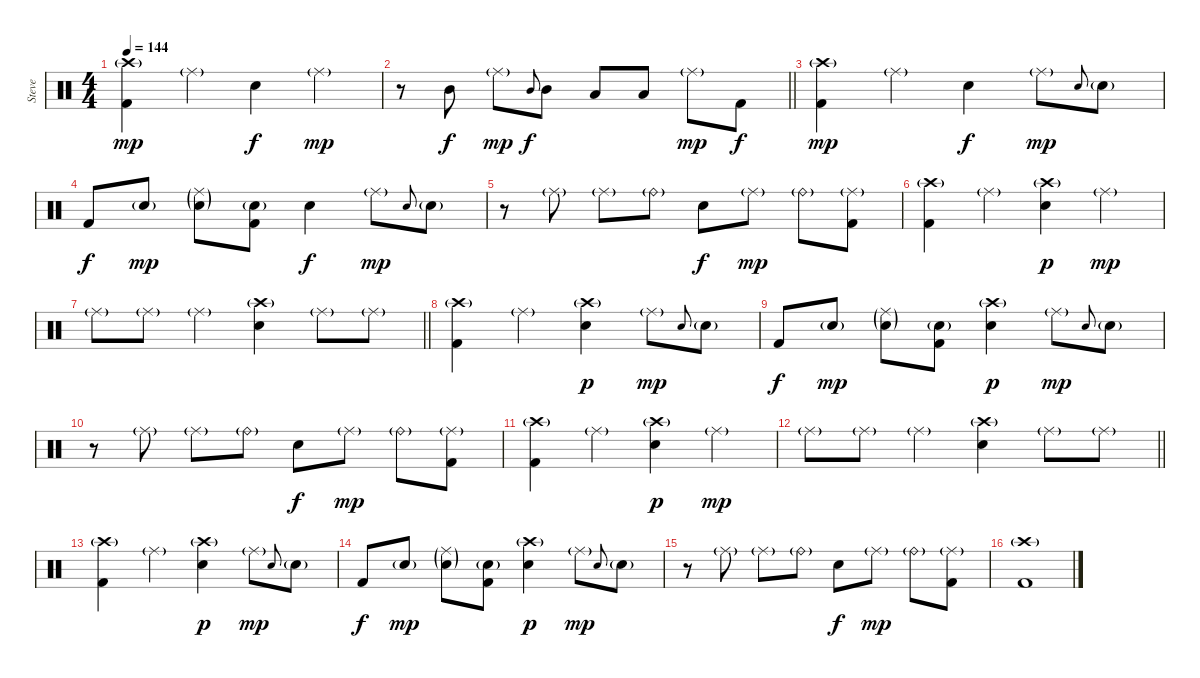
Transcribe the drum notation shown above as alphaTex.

\track ("Steve" "Steve") {instrument percussion}
\staff {score}
\articulation defaults
\ts (4 4)
\tempo 144
\clef neutral
\ks c
("Crash high (hit)"{g} "Kick (hit) 2").4{dy mp} "Ride (middle)"{g}.4 "Electric Snare (hit)".4{dy f} "Ride (middle)"{g}.4{dy mp} |
\barLineRight lightlight
r.8 "Mid Tom (hit)".8{dy f} "Ride (middle)"{g}.8{dy mp} "Mid Tom (hit)".8{gr onbeat dy f} "Mid Tom (hit)".8 "Low Tom (hit)".8 "Low Tom (hit)".8 "Ride (middle)"{g}.8{dy mp} "Kick (hit) 2".8{dy f} |
("Crash high (hit)"{g} "Kick (hit) 2").4{dy mp} "Ride (middle)"{g}.4 "Electric Snare (hit)".4{dy f} "Ride (middle)"{g}.8{dy mp} "Electric Snare (hit)".8{gr onbeat} "Electric Snare (hit)"{g}.8 |
"Kick (hit) 2".8{dy f} "Electric Snare (hit)"{g}.8{dy mp} ("Ride (middle)"{g} "Electric Snare (hit)"{g}).8 ("Electric Snare (hit)"{g} "Kick (hit) 2").8 "Electric Snare (hit)".4{dy f} "Ride (middle)"{g}.8{dy mp} "Electric Snare (hit)".8{gr onbeat} "Electric Snare (hit)"{g}.8 |
r.8 "Ride (middle)"{g}.8 "Ride (middle)"{g}.8 "Ride (bell)"{g}.8 "Electric Snare (hit)".8{dy f} "Ride (middle)"{g}.8{dy mp} "Ride (bell)"{g}.8 ("Ride (middle)"{g} "Kick (hit) 2").8 |
("Crash high (hit)"{g} "Kick (hit) 2").4 "Ride (middle)"{g}.4 ("Crash high (hit)"{g} "Electric Snare (hit)").4{dy p} "Ride (middle)"{g}.4{dy mp} |
\barLineRight lightlight "Ride (middle)"{g}.8 "Ride (middle)"{g}.8 "Ride (middle)"{g}.4
("Crash high (hit)"{g} "Electric Snare (hit)").4 "Ride (middle)"{g}.8 "Ride (middle)"{g}.8 |
("Crash high (hit)"{g} "Kick (hit) 2").4 "Ride (middle)"{g}.4 ("Crash high (hit)"{g} "Electric Snare (hit)").4{dy p} "Ride (middle)"{g}.8{dy mp} "Electric Snare (hit)".8{gr onbeat} "Electric Snare (hit)"{g}.8 |
"Kick (hit) 2".8{dy f} "Electric Snare (hit)"{g}.8{dy mp} ("Ride (middle)"{g} "Electric Snare (hit)"{g}).8 ("Electric Snare (hit)"{g} "Kick (hit) 2").8 ("Crash high (hit)"{g} "Electric Snare (hit)").4{dy p} "Ride (middle)"{g}.8{dy mp} "Electric Snare (hit)".8{gr onbeat} "Electric Snare (hit)"{g}.8 |
r.8 "Ride (middle)"{g}.8 "Ride (middle)"{g}.8 "Ride (bell)"{g}.8 "Electric Snare (hit)".8{dy f} "Ride (middle)"{g}.8{dy mp} "Ride (bell)"{g}.8 ("Ride (middle)"{g} "Kick (hit) 2").8 |
("Crash high (hit)"{g} "Kick (hit) 2").4 "Ride (middle)"{g}.4 ("Crash high (hit)"{g} "Electric Snare (hit)").4{dy p} "Ride (middle)"{g}.4{dy mp} |
\barLineRight lightlight "Ride (middle)"{g}.8 "Ride (middle)"{g}.8 "Ride (middle)"{g}.4
("Crash high (hit)"{g} "Electric Snare (hit)").4 "Ride (middle)"{g}.8 "Ride (middle)"{g}.8 |
("Crash high (hit)"{g} "Kick (hit) 2").4 "Ride (middle)"{g}.4 ("Crash high (hit)"{g} "Electric Snare (hit)").4{dy p} "Ride (middle)"{g}.8{dy mp} "Electric Snare (hit)".8{gr onbeat} "Electric Snare (hit)"{g}.8 |
"Kick (hit) 2".8{dy f} "Electric Snare (hit)"{g}.8{dy mp} ("Ride (middle)"{g} "Electric Snare (hit)"{g}).8 ("Electric Snare (hit)"{g} "Kick (hit) 2").8 ("Crash high (hit)"{g} "Electric Snare (hit)").4{dy p} "Ride (middle)"{g}.8{dy mp} "Electric Snare (hit)".8{gr onbeat} "Electric Snare (hit)"{g}.8 |
r.8 "Ride (middle)"{g}.8 "Ride (middle)"{g}.8 "Ride (bell)"{g}.8 "Electric Snare (hit)".8{dy f} "Ride (middle)"{g}.8{dy mp} "Ride (bell)"{g}.8 ("Ride (middle)"{g} "Kick (hit) 2").8 |
("Crash high (hit)"{g} "Kick (hit) 2").1
